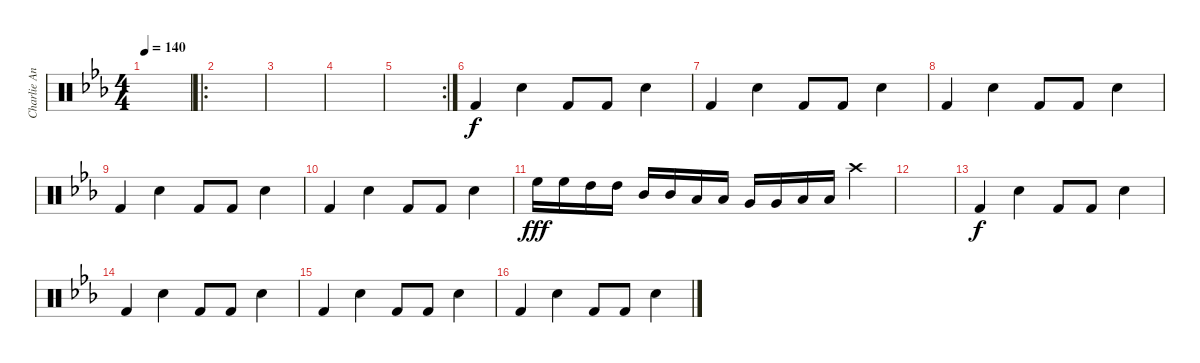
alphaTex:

\track ("Charlie Angel" "Charlie An") {instrument percussion}
\staff {score}
\articulation defaults
\ts (4 4)
\tempo 140
\clef neutral
\ks eb
|
\ro
|
|
|
\rc 2
|
"Kick (hit) 2".4 "Electric Snare (hit)".4 "Kick (hit) 2".8 "Kick (hit) 2".8 "Electric Snare (hit)".4 |
"Kick (hit) 2".4 "Electric Snare (hit)".4 "Kick (hit) 2".8 "Kick (hit) 2".8 "Electric Snare (hit)".4 |
"Kick (hit) 2".4 "Electric Snare (hit)".4 "Kick (hit) 2".8 "Kick (hit) 2".8 "Electric Snare (hit)".4 |
"Kick (hit) 2".4 "Electric Snare (hit)".4 "Kick (hit) 2".8 "Kick (hit) 2".8 "Electric Snare (hit)".4 |
"Kick (hit) 2".4 "Electric Snare (hit)".4 "Kick (hit) 2".8 "Kick (hit) 2".8 "Electric Snare (hit)".4 |
"High Floor Tom (hit)".16{dy fff} "High Floor Tom (hit)".16 "High Tom (hit)".16 "High Tom (hit)".16 "Mid Tom (hit)".16 "Mid Tom (hit)".16 "Low Tom (hit)".16 "Low Tom (hit)".16 "Very Low Tom (hit)".16 "Very Low Tom (hit)".16 "Low Floor Tom (hit)".16 "Low Floor Tom (hit)".16 "Crash high (hit)".4 |
|
"Kick (hit) 2".4{dy f} "Electric Snare (hit)".4 "Kick (hit) 2".8 "Kick (hit) 2".8 "Electric Snare (hit)".4 |
"Kick (hit) 2".4 "Electric Snare (hit)".4 "Kick (hit) 2".8 "Kick (hit) 2".8 "Electric Snare (hit)".4 |
"Kick (hit) 2".4 "Electric Snare (hit)".4 "Kick (hit) 2".8 "Kick (hit) 2".8 "Electric Snare (hit)".4 |
"Kick (hit) 2".4 "Electric Snare (hit)".4 "Kick (hit) 2".8 "Kick (hit) 2".8 "Electric Snare (hit)".4
